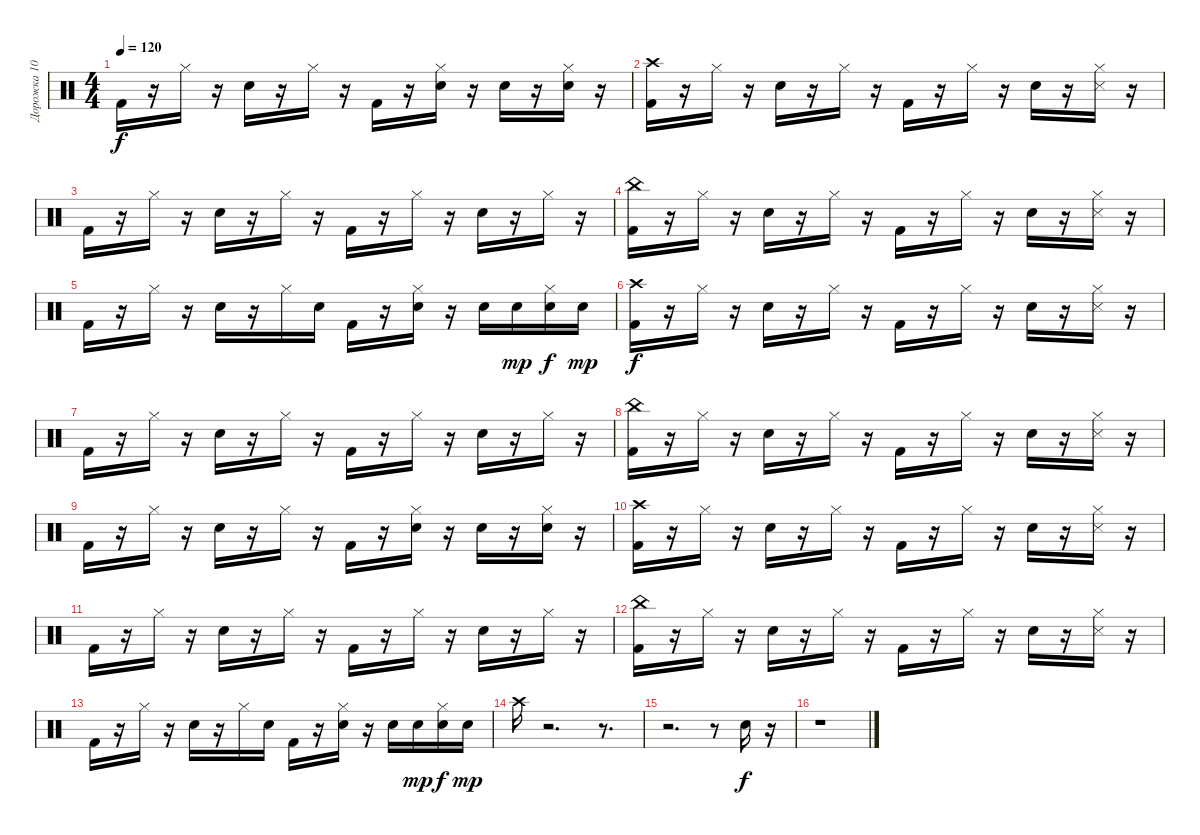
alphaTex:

\track ("Дорожка 10" "Дорожка 10") {instrument percussion}
\staff {score}
\articulation defaults
\ts (4 4)
\tempo 120
\clef neutral
\ks c "Kick (hit) 2".16{dy f}
r.16 "Hi-Hat (closed)".16 r.16 "Snare (hit) 2".16 r.16 "Hi-Hat (closed)".16 r.16 "Kick (hit) 2".16 r.16 ("Hand Clap (hit)" "Hi-Hat (closed)").16 r.16 "Snare (hit) 2".16 r.16 ("Hand Clap (hit)" "Hi-Hat (closed)").16 r.16 |
("Kick (hit) 2" "Crash high (hit)").16 r.16 "Hi-Hat (closed)".16 r.16 "Snare (hit) 2".16 r.16 "Hi-Hat (closed)".16 r.16 "Kick (hit) 2".16 r.16 "Hi-Hat (closed)".16 r.16 "Snare (hit) 2".16 r.16 ("Snare (side stick) 3" "Hi-Hat (closed)").16 r.16 |
"Kick (hit) 2".16 r.16 "Hi-Hat (closed)".16 r.16 "Snare (hit) 2".16 r.16 "Hi-Hat (closed)".16 r.16 "Kick (hit) 2".16 r.16 "Hi-Hat (closed)".16 r.16 "Snare (hit) 2".16 r.16 "Hi-Hat (closed)".16 r.16 |
("Kick (hit) 2" "China (hit)").16 r.16 "Hi-Hat (closed)".16 r.16 "Snare (hit) 2".16 r.16 "Hi-Hat (closed)".16 r.16 "Kick (hit) 2".16 r.16 "Hi-Hat (closed)".16 r.16 "Snare (hit) 2".16 r.16 ("Snare (side stick) 3" "Hi-Hat (closed)").16 r.16 |
"Kick (hit) 2".16 r.16 "Hi-Hat (closed)".16 r.16 "Snare (hit) 2".16 r.16 "Hi-Hat (closed)".16 "Snare (hit) 2".16 "Kick (hit) 2".16 r.16 ("Snare (hit) 2" "Hi-Hat (closed)").16 r.16 "Snare (hit) 2".16 "Snare (hit) 2".16{dy mp} ("Snare (hit) 2" "Hi-Hat (closed)").16{dy f} "Snare (hit) 2".16{dy mp} |
("Kick (hit) 2" "Crash high (hit)").16{dy f} r.16 "Hi-Hat (closed)".16 r.16 "Snare (hit) 2".16 r.16 "Hi-Hat (closed)".16 r.16 "Kick (hit) 2".16 r.16 "Hi-Hat (closed)".16 r.16 "Snare (hit) 2".16 r.16 ("Snare (side stick) 3" "Hi-Hat (closed)").16 r.16 |
"Kick (hit) 2".16 r.16 "Hi-Hat (closed)".16 r.16 "Snare (hit) 2".16 r.16 "Hi-Hat (closed)".16 r.16 "Kick (hit) 2".16 r.16 "Hi-Hat (closed)".16 r.16 "Snare (hit) 2".16 r.16 "Hi-Hat (closed)".16 r.16 |
("Kick (hit) 2" "China (hit)").16 r.16 "Hi-Hat (closed)".16 r.16 "Snare (hit) 2".16 r.16 "Hi-Hat (closed)".16 r.16 "Kick (hit) 2".16 r.16 "Hi-Hat (closed)".16 r.16 "Snare (hit) 2".16 r.16 ("Snare (side stick) 3" "Hi-Hat (closed)").16 r.16 |
"Kick (hit) 2".16 r.16 "Hi-Hat (closed)".16 r.16 "Snare (hit) 2".16 r.16 "Hi-Hat (closed)".16 r.16 "Kick (hit) 2".16 r.16 ("Hand Clap (hit)" "Hi-Hat (closed)").16 r.16 "Snare (hit) 2".16 r.16 ("Hand Clap (hit)" "Hi-Hat (closed)").16 r.16 |
("Kick (hit) 2" "Crash high (hit)").16 r.16 "Hi-Hat (closed)".16 r.16 "Snare (hit) 2".16 r.16 "Hi-Hat (closed)".16 r.16 "Kick (hit) 2".16 r.16 "Hi-Hat (closed)".16 r.16 "Snare (hit) 2".16 r.16 ("Snare (side stick) 3" "Hi-Hat (closed)").16 r.16 |
"Kick (hit) 2".16 r.16 "Hi-Hat (closed)".16 r.16 "Snare (hit) 2".16 r.16 "Hi-Hat (closed)".16 r.16 "Kick (hit) 2".16 r.16 "Hi-Hat (closed)".16 r.16 "Snare (hit) 2".16 r.16 "Hi-Hat (closed)".16 r.16 |
("Kick (hit) 2" "China (hit)").16 r.16 "Hi-Hat (closed)".16 r.16 "Snare (hit) 2".16 r.16 "Hi-Hat (closed)".16 r.16 "Kick (hit) 2".16 r.16 "Hi-Hat (closed)".16 r.16 "Snare (hit) 2".16 r.16 ("Snare (side stick) 3" "Hi-Hat (closed)").16 r.16 |
"Kick (hit) 2".16 r.16 "Hi-Hat (closed)".16 r.16 "Snare (hit) 2".16 r.16 "Hi-Hat (closed)".16 "Snare (hit) 2".16 "Kick (hit) 2".16 r.16 ("Snare (hit) 2" "Hi-Hat (closed)").16 r.16 "Snare (hit) 2".16 "Snare (hit) 2".16{dy mp} ("Snare (hit) 2" "Hi-Hat (closed)").16{dy f} "Snare (hit) 2".16{dy mp} |
"Crash high (hit)".16 r.2{d} r.8{d} |
r.2{d} r.8 "Hand Clap (hit)".16{dy f} r.16 |
r.1
